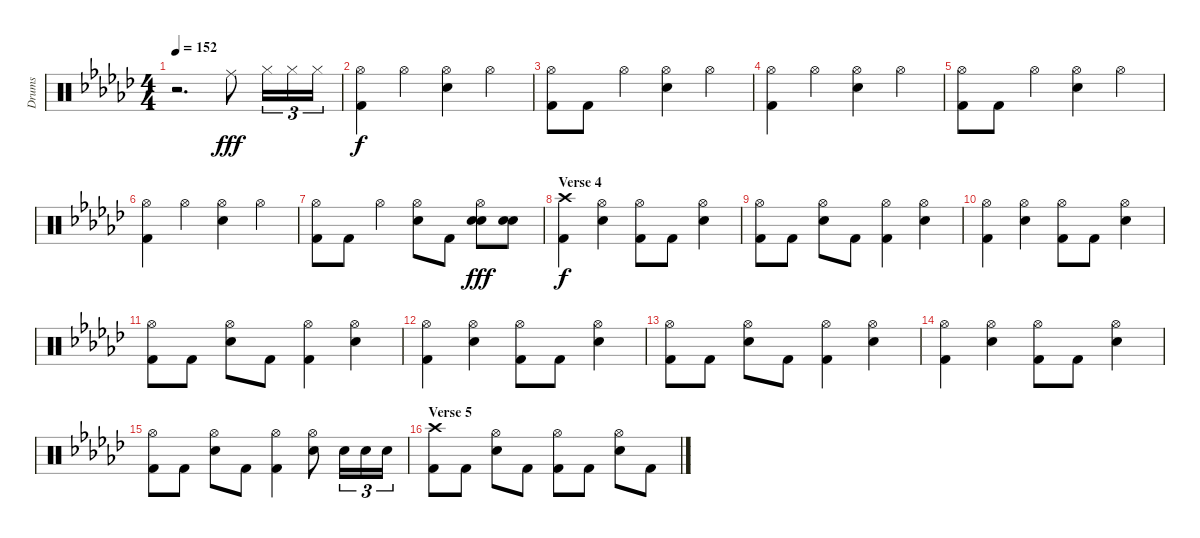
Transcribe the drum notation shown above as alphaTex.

\track ("Drums" "Drums") {instrument percussion}
\staff {score}
\articulation defaults
\ts (4 4)
\tempo 152
\clef neutral
\ks gb
r.2{d dy fff} "Ride (middle)".8 "Hi-Hat (closed)".16{tu (3 2)} "Hi-Hat (closed)".16{tu (3 2)} "Hi-Hat (closed)".16{tu (3 2)} |
("Hi-Hat (open)" "Kick (hit) 2").4{dy f} "Hi-Hat (open)".4 ("Hi-Hat (open)" "Electric Snare (hit)").4 "Hi-Hat (open)".4 |
("Hi-Hat (open)" "Kick (hit) 2").8 "Kick (hit) 2".8 "Hi-Hat (open)".4 ("Hi-Hat (open)" "Electric Snare (hit)").4 "Hi-Hat (open)".4 |
("Hi-Hat (open)" "Kick (hit) 2").4 "Hi-Hat (open)".4 ("Hi-Hat (open)" "Electric Snare (hit)").4 "Hi-Hat (open)".4 |
("Hi-Hat (open)" "Kick (hit) 2").8 "Kick (hit) 2".8 "Hi-Hat (open)".4 ("Hi-Hat (open)" "Electric Snare (hit)").4 "Hi-Hat (open)".4 |
("Hi-Hat (open)" "Kick (hit) 2").4 "Hi-Hat (open)".4 ("Hi-Hat (open)" "Electric Snare (hit)").4 "Hi-Hat (open)".4 |
("Hi-Hat (open)" "Kick (hit) 2").8 "Kick (hit) 2".8 "Hi-Hat (open)".4 ("Hi-Hat (open)" "Electric Snare (hit)").8 "Kick (hit) 2".8 ("Hi-Hat (open)" "Electric Snare (hit)" "Snare (hit) 2").8{dy fff} ("Electric Snare (hit)" "Snare (hit) 2").8 |
\section ("" "Verse 4")
("Crash high (hit)" "Kick (hit) 2").4{dy f} ("Hi-Hat (open)" "Electric Snare (hit)").4 ("Hi-Hat (open)" "Kick (hit) 2").8 "Kick (hit) 2".8 ("Hi-Hat (open)" "Electric Snare (hit)").4 |
("Hi-Hat (open)" "Kick (hit) 2").8 "Kick (hit) 2".8 ("Hi-Hat (open)" "Electric Snare (hit)").8 "Kick (hit) 2".8 ("Hi-Hat (open)" "Kick (hit) 2").4 ("Hi-Hat (open)" "Electric Snare (hit)").4 |
("Hi-Hat (open)" "Kick (hit) 2").4 ("Hi-Hat (open)" "Electric Snare (hit)").4 ("Hi-Hat (open)" "Kick (hit) 2").8 "Kick (hit) 2".8 ("Hi-Hat (open)" "Electric Snare (hit)").4 |
("Hi-Hat (open)" "Kick (hit) 2").8 "Kick (hit) 2".8 ("Hi-Hat (open)" "Electric Snare (hit)").8 "Kick (hit) 2".8 ("Hi-Hat (open)" "Kick (hit) 2").4 ("Hi-Hat (open)" "Electric Snare (hit)").4 |
("Hi-Hat (open)" "Kick (hit) 2").4 ("Hi-Hat (open)" "Electric Snare (hit)").4 ("Hi-Hat (open)" "Kick (hit) 2").8 "Kick (hit) 2".8 ("Hi-Hat (open)" "Electric Snare (hit)").4 |
("Hi-Hat (open)" "Kick (hit) 2").8 "Kick (hit) 2".8 ("Hi-Hat (open)" "Electric Snare (hit)").8 "Kick (hit) 2".8 ("Hi-Hat (open)" "Kick (hit) 2").4 ("Hi-Hat (open)" "Electric Snare (hit)").4 |
("Hi-Hat (open)" "Kick (hit) 2").4 ("Hi-Hat (open)" "Electric Snare (hit)").4 ("Hi-Hat (open)" "Kick (hit) 2").8 "Kick (hit) 2".8 ("Hi-Hat (open)" "Electric Snare (hit)").4 |
("Hi-Hat (open)" "Kick (hit) 2").8 "Kick (hit) 2".8 ("Hi-Hat (open)" "Electric Snare (hit)").8 "Kick (hit) 2".8 ("Hi-Hat (open)" "Kick (hit) 2").4 ("Hi-Hat (open)" "Electric Snare (hit)").8 "Electric Snare (hit)".16{tu (3 2)} "Electric Snare (hit)".16{tu (3 2)} "Electric Snare (hit)".16{tu (3 2)} |
\section ("" "Verse 5")
("Crash high (hit)" "Kick (hit) 2").8 "Kick (hit) 2".8 ("Hi-Hat (open)" "Electric Snare (hit)").8 "Kick (hit) 2".8 ("Hi-Hat (open)" "Kick (hit) 2").8 "Kick (hit) 2".8 ("Hi-Hat (open)" "Electric Snare (hit)").8 "Kick (hit) 2".8
